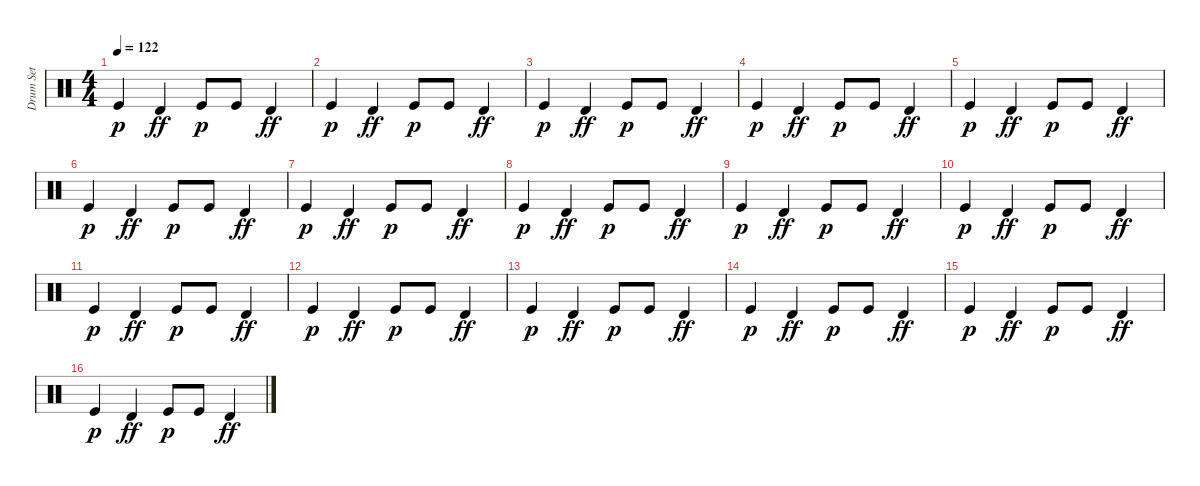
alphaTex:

\track ("Drum Set" "Drum Set") {instrument percussion}
\staff {score}
\articulation defaults
\ts (4 4)
\tempo 122
\clef neutral
\ks c "Kick (hit)".4{dy p} "Timbale high (hit)".4{dy ff} "Kick (hit)".8{dy p} "Kick (hit)".8 "Timbale high (hit)".4{dy ff}
|
"Kick (hit)".4{dy p} "Timbale high (hit)".4{dy ff} "Kick (hit)".8{dy p} "Kick (hit)".8 "Timbale high (hit)".4{dy ff} |
"Kick (hit)".4{dy p} "Timbale high (hit)".4{dy ff} "Kick (hit)".8{dy p} "Kick (hit)".8 "Timbale high (hit)".4{dy ff} |
"Kick (hit)".4{dy p} "Timbale high (hit)".4{dy ff} "Kick (hit)".8{dy p} "Kick (hit)".8 "Timbale high (hit)".4{dy ff} |
"Kick (hit)".4{dy p} "Timbale high (hit)".4{dy ff} "Kick (hit)".8{dy p} "Kick (hit)".8 "Timbale high (hit)".4{dy ff} |
"Kick (hit)".4{dy p} "Timbale high (hit)".4{dy ff} "Kick (hit)".8{dy p} "Kick (hit)".8 "Timbale high (hit)".4{dy ff} |
"Kick (hit)".4{dy p} "Timbale high (hit)".4{dy ff} "Kick (hit)".8{dy p} "Kick (hit)".8 "Timbale high (hit)".4{dy ff} |
"Kick (hit)".4{dy p} "Timbale high (hit)".4{dy ff} "Kick (hit)".8{dy p} "Kick (hit)".8 "Timbale high (hit)".4{dy ff} |
"Kick (hit)".4{dy p} "Timbale high (hit)".4{dy ff} "Kick (hit)".8{dy p} "Kick (hit)".8 "Timbale high (hit)".4{dy ff} |
"Kick (hit)".4{dy p} "Timbale high (hit)".4{dy ff} "Kick (hit)".8{dy p} "Kick (hit)".8 "Timbale high (hit)".4{dy ff} |
"Kick (hit)".4{dy p} "Timbale high (hit)".4{dy ff} "Kick (hit)".8{dy p} "Kick (hit)".8 "Timbale high (hit)".4{dy ff} |
"Kick (hit)".4{dy p} "Timbale high (hit)".4{dy ff} "Kick (hit)".8{dy p} "Kick (hit)".8 "Timbale high (hit)".4{dy ff} |
"Kick (hit)".4{dy p} "Timbale high (hit)".4{dy ff} "Kick (hit)".8{dy p} "Kick (hit)".8 "Timbale high (hit)".4{dy ff} |
"Kick (hit)".4{dy p} "Timbale high (hit)".4{dy ff} "Kick (hit)".8{dy p} "Kick (hit)".8 "Timbale high (hit)".4{dy ff} |
"Kick (hit)".4{dy p} "Timbale high (hit)".4{dy ff} "Kick (hit)".8{dy p} "Kick (hit)".8 "Timbale high (hit)".4{dy ff} |
"Kick (hit)".4{dy p} "Timbale high (hit)".4{dy ff} "Kick (hit)".8{dy p} "Kick (hit)".8 "Timbale high (hit)".4{dy ff}
